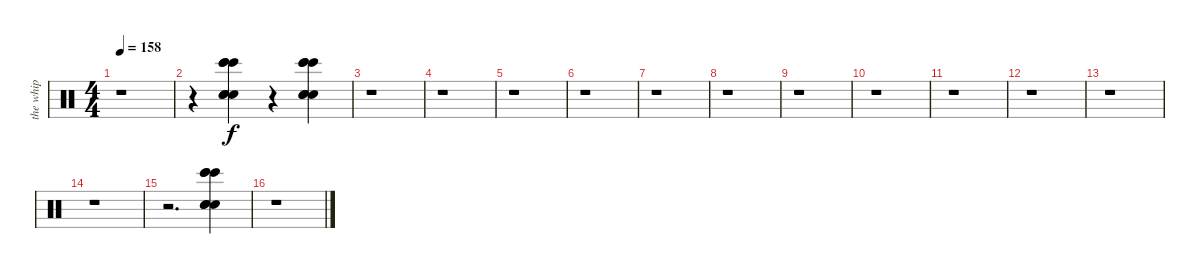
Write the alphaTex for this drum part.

\track ("the whip " "the whip ") {instrument percussion}
\staff {score}
\articulation defaults
\ts (4 4)
\tempo 158
\clef neutral
\ks c
r.1{dy f} |
r.4 ("Hand Clap (hit)" "Hand Clap (hit)" "Hand Clap (hit)" "Bongo High (hit)" "Bongo High (hit)" "Bongo High (hit)").4 r.4 ("Hand Clap (hit)" "Hand Clap (hit)" "Hand Clap (hit)" "Bongo High (hit)" "Bongo High (hit)" "Bongo High (hit)").4 |
r.1 |
r.1 |
r.1 |
r.1 |
r.1 |
r.1 |
r.1 |
r.1 |
r.1 |
r.1 |
r.1 |
r.1 |
r.2{d} ("Hand Clap (hit)" "Hand Clap (hit)" "Hand Clap (hit)" "Bongo High (hit)" "Bongo High (hit)" "Bongo High (hit)").4 |
r.1
